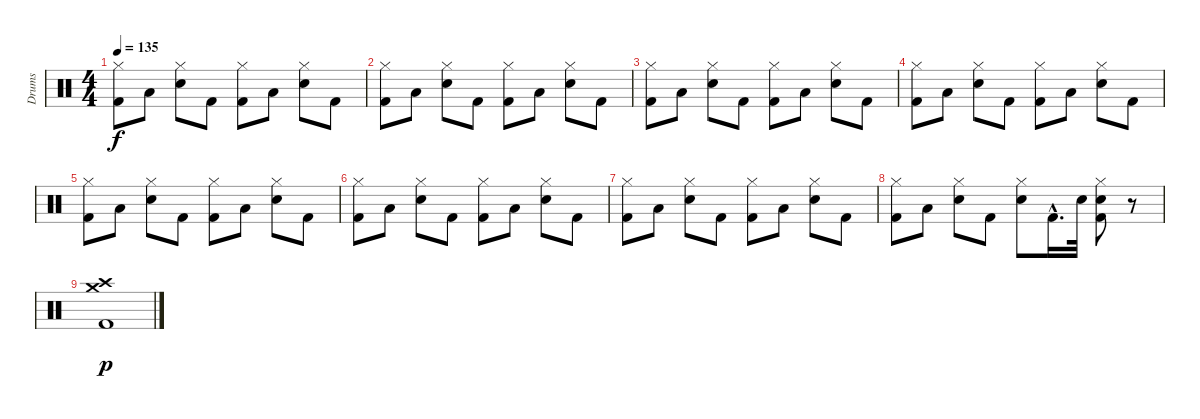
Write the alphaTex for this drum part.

\track ("Drums" "Drums") {instrument percussion}
\staff {score}
\articulation defaults
\ts (4 4)
\tempo 135
\clef neutral
\ks c
("Hi-Hat (closed)" "Kick (hit) 2").8{dy f} "Low Floor Tom (hit)".8 ("Hi-Hat (closed)" "Snare (hit) 2").8 "Kick (hit) 2".8 ("Hi-Hat (closed)" "Kick (hit) 2").8 "Low Floor Tom (hit)".8 ("Hi-Hat (closed)" "Snare (hit) 2").8 "Kick (hit) 2".8 |
("Hi-Hat (closed)" "Kick (hit) 2").8 "Low Floor Tom (hit)".8 ("Hi-Hat (closed)" "Snare (hit) 2").8 "Kick (hit) 2".8 ("Hi-Hat (closed)" "Kick (hit) 2").8 "Low Floor Tom (hit)".8 ("Hi-Hat (closed)" "Snare (hit) 2").8 "Kick (hit) 2".8 |
("Hi-Hat (closed)" "Kick (hit) 2").8 "Low Floor Tom (hit)".8 ("Hi-Hat (closed)" "Snare (hit) 2").8 "Kick (hit) 2".8 ("Hi-Hat (closed)" "Kick (hit) 2").8 "Low Floor Tom (hit)".8 ("Hi-Hat (closed)" "Snare (hit) 2").8 "Kick (hit) 2".8 |
("Hi-Hat (closed)" "Kick (hit) 2").8 "Low Floor Tom (hit)".8 ("Hi-Hat (closed)" "Snare (hit) 2").8 "Kick (hit) 2".8 ("Hi-Hat (closed)" "Kick (hit) 2").8 "Low Floor Tom (hit)".8 ("Hi-Hat (closed)" "Snare (hit) 2").8 "Kick (hit) 2".8 |
("Hi-Hat (closed)" "Kick (hit) 2").8 "Low Floor Tom (hit)".8 ("Hi-Hat (closed)" "Snare (hit) 2").8 "Kick (hit) 2".8 ("Hi-Hat (closed)" "Kick (hit) 2").8 "Low Floor Tom (hit)".8 ("Hi-Hat (closed)" "Snare (hit) 2").8 "Kick (hit) 2".8 |
("Hi-Hat (closed)" "Kick (hit) 2").8 "Low Floor Tom (hit)".8 ("Hi-Hat (closed)" "Snare (hit) 2").8 "Kick (hit) 2".8 ("Hi-Hat (closed)" "Kick (hit) 2").8 "Low Floor Tom (hit)".8 ("Hi-Hat (closed)" "Snare (hit) 2").8 "Kick (hit) 2".8 |
("Hi-Hat (closed)" "Kick (hit) 2").8 "Low Floor Tom (hit)".8 ("Hi-Hat (closed)" "Snare (hit) 2").8 "Kick (hit) 2".8 ("Hi-Hat (closed)" "Kick (hit) 2").8 "Low Floor Tom (hit)".8 ("Hi-Hat (closed)" "Snare (hit) 2").8 "Kick (hit) 2".8 |
("Hi-Hat (closed)" "Kick (hit) 2").8 "Low Floor Tom (hit)".8 ("Hi-Hat (closed)" "Snare (hit) 2").8 "Kick (hit) 2".8 ("Hi-Hat (closed)" "Snare (hit) 2").8 "Kick (hit) 2"{hac}.16{d} "Snare (hit) 2".32 ("Hi-Hat (closed)" "Snare (hit) 2" "Kick (hit) 2").8 r.8 |
("Crash medium (hit)" "Crash high (hit)" "Kick (hit) 2").1{dy p}
